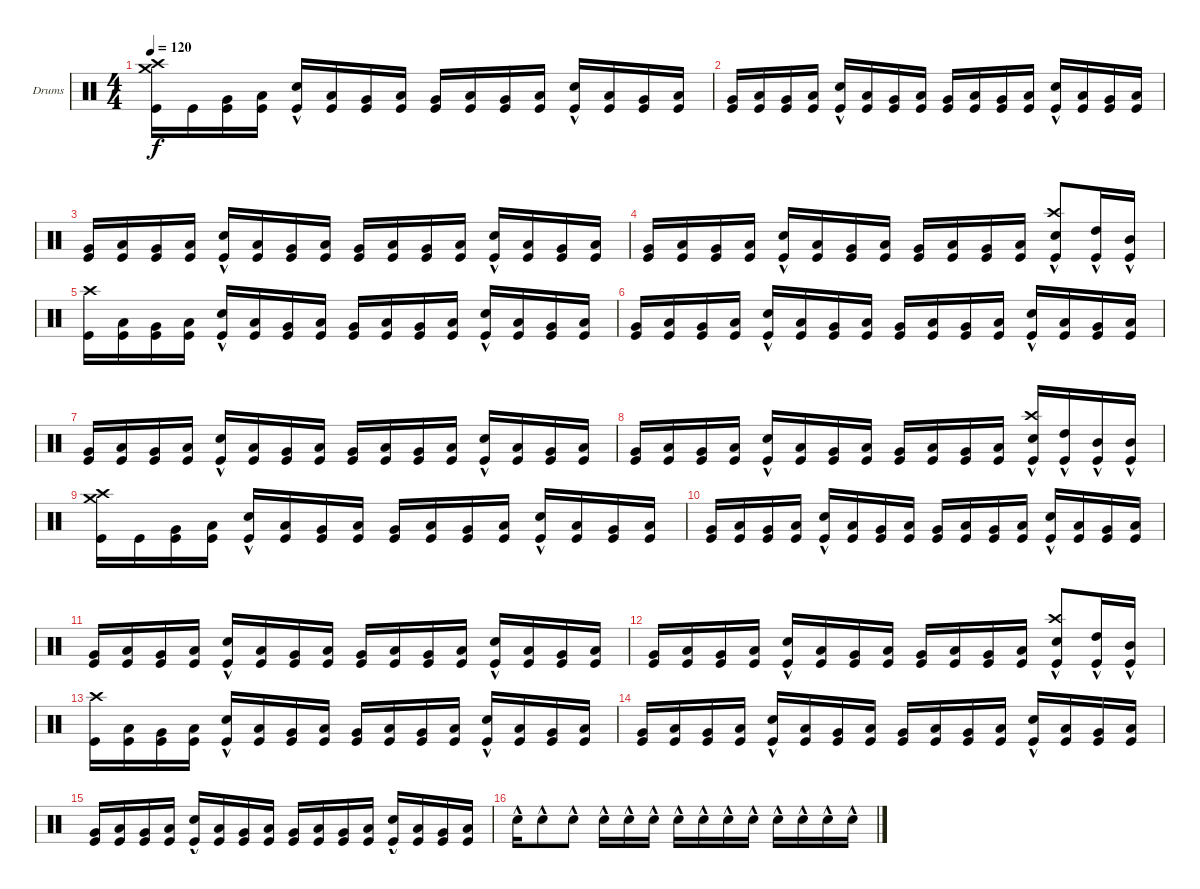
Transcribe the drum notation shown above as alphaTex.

\bracketExtendMode groupsimilarinstruments
\firstSystemTrackNameOrientation horizontal
\otherSystemsTrackNameOrientation horizontal
\track ("Drumkit" "Drums") {instrument percussion}
\staff {score}
\articulation defaults
\ts (4 4)
\tempo 120
\clef neutral
\scale
0.333333
\ks c
("Kick (hit)" "Crash medium (hit)" "Crash high (hit)").16{dy f} "Kick (hit)".16 ("Kick (hit)" "Very Low Tom (hit)").16 ("Kick (hit)" "Low Tom (hit)").16 ("Kick (hit)" "Snare (hit) 2"{hac}).16 ("Kick (hit)" "Low Tom (hit)").16 ("Kick (hit)" "Very Low Tom (hit)").16 ("Kick (hit)" "Low Tom (hit)").16 ("Kick (hit)" "Very Low Tom (hit)").16 ("Kick (hit)" "Low Tom (hit)").16 ("Kick (hit)" "Very Low Tom (hit)").16 ("Kick (hit)" "Low Tom (hit)").16 ("Kick (hit)" "Snare (hit) 2"{hac}).16 ("Kick (hit)" "Low Tom (hit)").16 ("Kick (hit)" "Very Low Tom (hit)").16 ("Kick (hit)" "Low Tom (hit)").16 |
\scale
0.333333 ("Kick (hit)" "Very Low Tom (hit)").16 ("Kick (hit)" "Low Tom (hit)").16 ("Kick (hit)" "Very Low Tom (hit)").16 ("Kick (hit)" "Low Tom (hit)").16 ("Kick (hit)" "Snare (hit) 2"{hac}).16 ("Kick (hit)" "Low Tom (hit)").16 ("Kick (hit)" "Very Low Tom (hit)").16 ("Kick (hit)" "Low Tom (hit)").16 ("Kick (hit)" "Very Low Tom (hit)").16 ("Kick (hit)" "Low Tom (hit)").16 ("Kick (hit)" "Very Low Tom (hit)").16 ("Kick (hit)" "Low Tom (hit)").16 ("Kick (hit)" "Snare (hit) 2"{hac}).16 ("Kick (hit)" "Low Tom (hit)").16 ("Kick (hit)" "Very Low Tom (hit)").16 ("Kick (hit)" "Low Tom (hit)").16 |
\scale
0.333333 ("Kick (hit)" "Very Low Tom (hit)").16 ("Kick (hit)" "Low Tom (hit)").16 ("Kick (hit)" "Very Low Tom (hit)").16 ("Kick (hit)" "Low Tom (hit)").16 ("Kick (hit)" "Snare (hit) 2"{hac}).16 ("Kick (hit)" "Low Tom (hit)").16 ("Kick (hit)" "Very Low Tom (hit)").16 ("Kick (hit)" "Low Tom (hit)").16 ("Kick (hit)" "Very Low Tom (hit)").16 ("Kick (hit)" "Low Tom (hit)").16 ("Kick (hit)" "Very Low Tom (hit)").16 ("Kick (hit)" "Low Tom (hit)").16 ("Kick (hit)" "Snare (hit) 2"{hac}).16 ("Kick (hit)" "Low Tom (hit)").16 ("Kick (hit)" "Very Low Tom (hit)").16 ("Kick (hit)" "Low Tom (hit)").16 |
\scale
0.333333 ("Kick (hit)" "Very Low Tom (hit)").16 ("Kick (hit)" "Low Tom (hit)").16 ("Kick (hit)" "Very Low Tom (hit)").16 ("Kick (hit)" "Low Tom (hit)").16 ("Kick (hit)" "Snare (hit) 2"{hac}).16 ("Kick (hit)" "Low Tom (hit)").16 ("Kick (hit)" "Very Low Tom (hit)").16 ("Kick (hit)" "Low Tom (hit)").16 ("Kick (hit)" "Very Low Tom (hit)").16 ("Kick (hit)" "Low Tom (hit)").16 ("Kick (hit)" "Very Low Tom (hit)").16 ("Kick (hit)" "Low Tom (hit)").16 ("Kick (hit)" "Snare (hit) 2"{hac} "Crash high (hit)").8 ("Kick (hit)" "High Tom (hit)"{hac}).16 ("Kick (hit)" "Mid Tom (hit)"{hac}).16 |
\scale
0.333333 ("Kick (hit)" "Crash high (hit)").16 ("Kick (hit)" "Low Tom (hit)").16 ("Kick (hit)" "Very Low Tom (hit)").16 ("Kick (hit)" "Low Tom (hit)").16 ("Kick (hit)" "Snare (hit) 2"{hac}).16 ("Kick (hit)" "Low Tom (hit)").16 ("Kick (hit)" "Very Low Tom (hit)").16 ("Kick (hit)" "Low Tom (hit)").16 ("Kick (hit)" "Very Low Tom (hit)").16 ("Kick (hit)" "Low Tom (hit)").16 ("Kick (hit)" "Very Low Tom (hit)").16 ("Kick (hit)" "Low Tom (hit)").16 ("Kick (hit)" "Snare (hit) 2"{hac}).16 ("Kick (hit)" "Low Tom (hit)").16 ("Kick (hit)" "Very Low Tom (hit)").16 ("Kick (hit)" "Low Tom (hit)").16 |
\scale
0.333333 ("Kick (hit)" "Very Low Tom (hit)").16 ("Kick (hit)" "Low Tom (hit)").16 ("Kick (hit)" "Very Low Tom (hit)").16 ("Kick (hit)" "Low Tom (hit)").16 ("Kick (hit)" "Snare (hit) 2"{hac}).16 ("Kick (hit)" "Low Tom (hit)").16 ("Kick (hit)" "Very Low Tom (hit)").16 ("Kick (hit)" "Low Tom (hit)").16 ("Kick (hit)" "Very Low Tom (hit)").16 ("Kick (hit)" "Low Tom (hit)").16 ("Kick (hit)" "Very Low Tom (hit)").16 ("Kick (hit)" "Low Tom (hit)").16 ("Kick (hit)" "Snare (hit) 2"{hac}).16 ("Kick (hit)" "Low Tom (hit)").16 ("Kick (hit)" "Very Low Tom (hit)").16 ("Kick (hit)" "Low Tom (hit)").16 |
\scale
0.333333 ("Kick (hit)" "Very Low Tom (hit)").16 ("Kick (hit)" "Low Tom (hit)").16 ("Kick (hit)" "Very Low Tom (hit)").16 ("Kick (hit)" "Low Tom (hit)").16 ("Kick (hit)" "Snare (hit) 2"{hac}).16 ("Kick (hit)" "Low Tom (hit)").16 ("Kick (hit)" "Very Low Tom (hit)").16 ("Kick (hit)" "Low Tom (hit)").16 ("Kick (hit)" "Very Low Tom (hit)").16 ("Kick (hit)" "Low Tom (hit)").16 ("Kick (hit)" "Very Low Tom (hit)").16 ("Kick (hit)" "Low Tom (hit)").16 ("Kick (hit)" "Snare (hit) 2"{hac}).16 ("Kick (hit)" "Low Tom (hit)").16 ("Kick (hit)" "Very Low Tom (hit)").16 ("Kick (hit)" "Low Tom (hit)").16 |
\scale
0.333333 ("Kick (hit)" "Very Low Tom (hit)").16 ("Kick (hit)" "Low Tom (hit)").16 ("Kick (hit)" "Very Low Tom (hit)").16 ("Kick (hit)" "Low Tom (hit)").16 ("Kick (hit)" "Snare (hit) 2"{hac}).16 ("Kick (hit)" "Low Tom (hit)").16 ("Kick (hit)" "Very Low Tom (hit)").16 ("Kick (hit)" "Low Tom (hit)").16 ("Kick (hit)" "Very Low Tom (hit)").16 ("Kick (hit)" "Low Tom (hit)").16 ("Kick (hit)" "Very Low Tom (hit)").16 ("Kick (hit)" "Low Tom (hit)").16 ("Kick (hit)" "Snare (hit) 2"{hac} "Crash high (hit)").16 ("Kick (hit)" "High Tom (hit)"{hac}).16 ("Kick (hit)" "Mid Tom (hit)"{hac}).16 ("Kick (hit)" "Mid Tom (hit)"{hac}).16 |
\scale
0.333333 ("Kick (hit)" "Crash medium (hit)" "Crash high (hit)").16 "Kick (hit)".16 ("Kick (hit)" "Very Low Tom (hit)").16 ("Kick (hit)" "Low Tom (hit)").16 ("Kick (hit)" "Snare (hit) 2"{hac}).16 ("Kick (hit)" "Low Tom (hit)").16 ("Kick (hit)" "Very Low Tom (hit)").16 ("Kick (hit)" "Low Tom (hit)").16 ("Kick (hit)" "Very Low Tom (hit)").16 ("Kick (hit)" "Low Tom (hit)").16 ("Kick (hit)" "Very Low Tom (hit)").16 ("Kick (hit)" "Low Tom (hit)").16 ("Kick (hit)" "Snare (hit) 2"{hac}).16 ("Kick (hit)" "Low Tom (hit)").16 ("Kick (hit)" "Very Low Tom (hit)").16 ("Kick (hit)" "Low Tom (hit)").16 |
\scale
0.333333 ("Kick (hit)" "Very Low Tom (hit)").16 ("Kick (hit)" "Low Tom (hit)").16 ("Kick (hit)" "Very Low Tom (hit)").16 ("Kick (hit)" "Low Tom (hit)").16 ("Kick (hit)" "Snare (hit) 2"{hac}).16 ("Kick (hit)" "Low Tom (hit)").16 ("Kick (hit)" "Very Low Tom (hit)").16 ("Kick (hit)" "Low Tom (hit)").16 ("Kick (hit)" "Very Low Tom (hit)").16 ("Kick (hit)" "Low Tom (hit)").16 ("Kick (hit)" "Very Low Tom (hit)").16 ("Kick (hit)" "Low Tom (hit)").16 ("Kick (hit)" "Snare (hit) 2"{hac}).16 ("Kick (hit)" "Low Tom (hit)").16 ("Kick (hit)" "Very Low Tom (hit)").16 ("Kick (hit)" "Low Tom (hit)").16 |
\scale
0.333333 ("Kick (hit)" "Very Low Tom (hit)").16 ("Kick (hit)" "Low Tom (hit)").16 ("Kick (hit)" "Very Low Tom (hit)").16 ("Kick (hit)" "Low Tom (hit)").16 ("Kick (hit)" "Snare (hit) 2"{hac}).16 ("Kick (hit)" "Low Tom (hit)").16 ("Kick (hit)" "Very Low Tom (hit)").16 ("Kick (hit)" "Low Tom (hit)").16 ("Kick (hit)" "Very Low Tom (hit)").16 ("Kick (hit)" "Low Tom (hit)").16 ("Kick (hit)" "Very Low Tom (hit)").16 ("Kick (hit)" "Low Tom (hit)").16 ("Kick (hit)" "Snare (hit) 2"{hac}).16 ("Kick (hit)" "Low Tom (hit)").16 ("Kick (hit)" "Very Low Tom (hit)").16 ("Kick (hit)" "Low Tom (hit)").16 |
\scale
0.333333 ("Kick (hit)" "Very Low Tom (hit)").16 ("Kick (hit)" "Low Tom (hit)").16 ("Kick (hit)" "Very Low Tom (hit)").16 ("Kick (hit)" "Low Tom (hit)").16 ("Kick (hit)" "Snare (hit) 2"{hac}).16 ("Kick (hit)" "Low Tom (hit)").16 ("Kick (hit)" "Very Low Tom (hit)").16 ("Kick (hit)" "Low Tom (hit)").16 ("Kick (hit)" "Very Low Tom (hit)").16 ("Kick (hit)" "Low Tom (hit)").16 ("Kick (hit)" "Very Low Tom (hit)").16 ("Kick (hit)" "Low Tom (hit)").16 ("Kick (hit)" "Snare (hit) 2"{hac} "Crash high (hit)").8 ("Kick (hit)" "High Tom (hit)"{hac}).16 ("Kick (hit)" "Mid Tom (hit)"{hac}).16 |
\scale
0.333333 ("Kick (hit)" "Crash high (hit)").16 ("Kick (hit)" "Low Tom (hit)").16 ("Kick (hit)" "Very Low Tom (hit)").16 ("Kick (hit)" "Low Tom (hit)").16 ("Kick (hit)" "Snare (hit) 2"{hac}).16 ("Kick (hit)" "Low Tom (hit)").16 ("Kick (hit)" "Very Low Tom (hit)").16 ("Kick (hit)" "Low Tom (hit)").16 ("Kick (hit)" "Very Low Tom (hit)").16 ("Kick (hit)" "Low Tom (hit)").16 ("Kick (hit)" "Very Low Tom (hit)").16 ("Kick (hit)" "Low Tom (hit)").16 ("Kick (hit)" "Snare (hit) 2"{hac}).16 ("Kick (hit)" "Low Tom (hit)").16 ("Kick (hit)" "Very Low Tom (hit)").16 ("Kick (hit)" "Low Tom (hit)").16 |
\scale
0.333333 ("Kick (hit)" "Very Low Tom (hit)").16 ("Kick (hit)" "Low Tom (hit)").16 ("Kick (hit)" "Very Low Tom (hit)").16 ("Kick (hit)" "Low Tom (hit)").16 ("Kick (hit)" "Snare (hit) 2"{hac}).16 ("Kick (hit)" "Low Tom (hit)").16 ("Kick (hit)" "Very Low Tom (hit)").16 ("Kick (hit)" "Low Tom (hit)").16 ("Kick (hit)" "Very Low Tom (hit)").16 ("Kick (hit)" "Low Tom (hit)").16 ("Kick (hit)" "Very Low Tom (hit)").16 ("Kick (hit)" "Low Tom (hit)").16 ("Kick (hit)" "Snare (hit) 2"{hac}).16 ("Kick (hit)" "Low Tom (hit)").16 ("Kick (hit)" "Very Low Tom (hit)").16 ("Kick (hit)" "Low Tom (hit)").16 |
\scale
0.333333 ("Kick (hit)" "Very Low Tom (hit)").16 ("Kick (hit)" "Low Tom (hit)").16 ("Kick (hit)" "Very Low Tom (hit)").16 ("Kick (hit)" "Low Tom (hit)").16 ("Kick (hit)" "Snare (hit) 2"{hac}).16 ("Kick (hit)" "Low Tom (hit)").16 ("Kick (hit)" "Very Low Tom (hit)").16 ("Kick (hit)" "Low Tom (hit)").16 ("Kick (hit)" "Very Low Tom (hit)").16 ("Kick (hit)" "Low Tom (hit)").16 ("Kick (hit)" "Very Low Tom (hit)").16 ("Kick (hit)" "Low Tom (hit)").16 ("Kick (hit)" "Snare (hit) 2"{hac}).16 ("Kick (hit)" "Low Tom (hit)").16 ("Kick (hit)" "Very Low Tom (hit)").16 ("Kick (hit)" "Low Tom (hit)").16 |
\scale
0.333333 "Snare (hit) 2"{hac}.16 "Snare (hit) 2"{hac}.8 "Snare (hit) 2"{hac}.8 "Snare (hit) 2"{hac}.16 "Snare (hit) 2"{hac}.16 "Snare (hit) 2"{hac}.16 "Snare (hit) 2"{hac}.16 "Snare (hit) 2"{hac}.16 "Snare (hit) 2"{hac}.16 "Snare (hit) 2"{hac}.16 "Snare (hit) 2"{hac}.16 "Snare (hit) 2"{hac}.16 "Snare (hit) 2"{hac}.16 "Snare (hit) 2"{hac}.16
